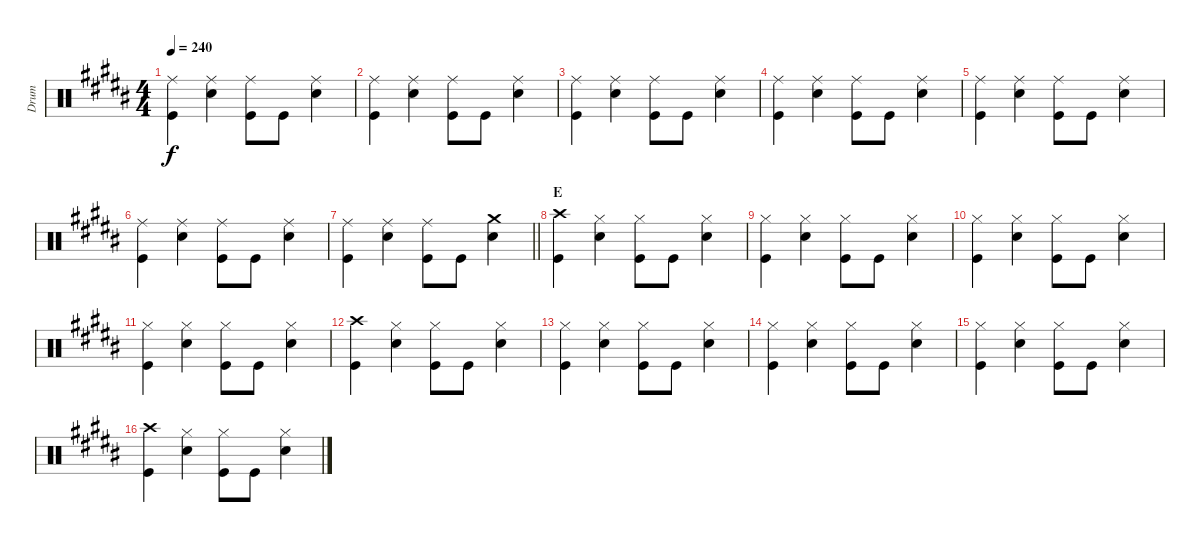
\track ("Drum" "Drum") {instrument percussion}
\staff {score}
\articulation defaults
\ts (4 4)
\tempo 240
\clef neutral
\ks b
("Kick (hit)" "Ride (middle)").4{dy f} ("Ride (middle)" "Snare (hit) 2").4 ("Ride (middle)" "Kick (hit)").8 "Kick (hit)".8 ("Snare (hit) 2" "Ride (middle)").4 |
("Kick (hit)" "Ride (middle)").4 ("Ride (middle)" "Snare (hit) 2").4 ("Ride (middle)" "Kick (hit)").8 "Kick (hit)".8 ("Snare (hit) 2" "Ride (middle)").4 |
("Kick (hit)" "Ride (middle)").4 ("Ride (middle)" "Snare (hit) 2").4 ("Ride (middle)" "Kick (hit)").8 "Kick (hit)".8 ("Snare (hit) 2" "Ride (middle)").4 |
("Kick (hit)" "Ride (middle)").4 ("Ride (middle)" "Snare (hit) 2").4 ("Ride (middle)" "Kick (hit)").8 "Kick (hit)".8 ("Snare (hit) 2" "Ride (middle)").4 |
("Kick (hit)" "Ride (middle)").4 ("Ride (middle)" "Snare (hit) 2").4 ("Ride (middle)" "Kick (hit)").8 "Kick (hit)".8 ("Snare (hit) 2" "Ride (middle)").4 |
("Kick (hit)" "Ride (middle)").4 ("Ride (middle)" "Snare (hit) 2").4 ("Ride (middle)" "Kick (hit)").8 "Kick (hit)".8 ("Snare (hit) 2" "Ride (middle)").4 |
\barLineRight lightlight
("Kick (hit)" "Ride (middle)").4 ("Ride (middle)" "Snare (hit) 2").4 ("Ride (middle)" "Kick (hit)").8 "Kick (hit)".8 ("Snare (hit) 2" "Crash medium (hit)").4 |
\section ("" "E")
("Kick (hit)" "Crash high (hit)").4 ("Hi-Hat (closed)" "Snare (hit) 2").4 ("Hi-Hat (closed)" "Kick (hit)").8 "Kick (hit)".8 ("Snare (hit) 2" "Hi-Hat (closed)").4 |
("Kick (hit)" "Hi-Hat (closed)").4 ("Hi-Hat (closed)" "Snare (hit) 2").4 ("Hi-Hat (closed)" "Kick (hit)").8 "Kick (hit)".8 ("Snare (hit) 2" "Hi-Hat (closed)").4 |
("Kick (hit)" "Hi-Hat (closed)").4 ("Hi-Hat (closed)" "Snare (hit) 2").4 ("Hi-Hat (closed)" "Kick (hit)").8 "Kick (hit)".8 ("Snare (hit) 2" "Hi-Hat (closed)").4 |
("Kick (hit)" "Hi-Hat (closed)").4 ("Hi-Hat (closed)" "Snare (hit) 2").4 ("Hi-Hat (closed)" "Kick (hit)").8 "Kick (hit)".8 ("Snare (hit) 2" "Hi-Hat (closed)").4 |
("Kick (hit)" "Crash high (hit)").4 ("Hi-Hat (closed)" "Snare (hit) 2").4 ("Hi-Hat (closed)" "Kick (hit)").8 "Kick (hit)".8 ("Snare (hit) 2" "Hi-Hat (closed)").4 |
("Kick (hit)" "Hi-Hat (closed)").4 ("Hi-Hat (closed)" "Snare (hit) 2").4 ("Hi-Hat (closed)" "Kick (hit)").8 "Kick (hit)".8 ("Snare (hit) 2" "Hi-Hat (closed)").4 |
("Kick (hit)" "Hi-Hat (closed)").4 ("Hi-Hat (closed)" "Snare (hit) 2").4 ("Hi-Hat (closed)" "Kick (hit)").8 "Kick (hit)".8 ("Snare (hit) 2" "Hi-Hat (closed)").4 |
("Kick (hit)" "Hi-Hat (closed)").4 ("Hi-Hat (closed)" "Snare (hit) 2").4 ("Hi-Hat (closed)" "Kick (hit)").8 "Kick (hit)".8 ("Snare (hit) 2" "Hi-Hat (closed)").4 |
("Kick (hit)" "Crash high (hit)").4 ("Hi-Hat (closed)" "Snare (hit) 2").4 ("Hi-Hat (closed)" "Kick (hit)").8 "Kick (hit)".8 ("Snare (hit) 2" "Hi-Hat (closed)").4
